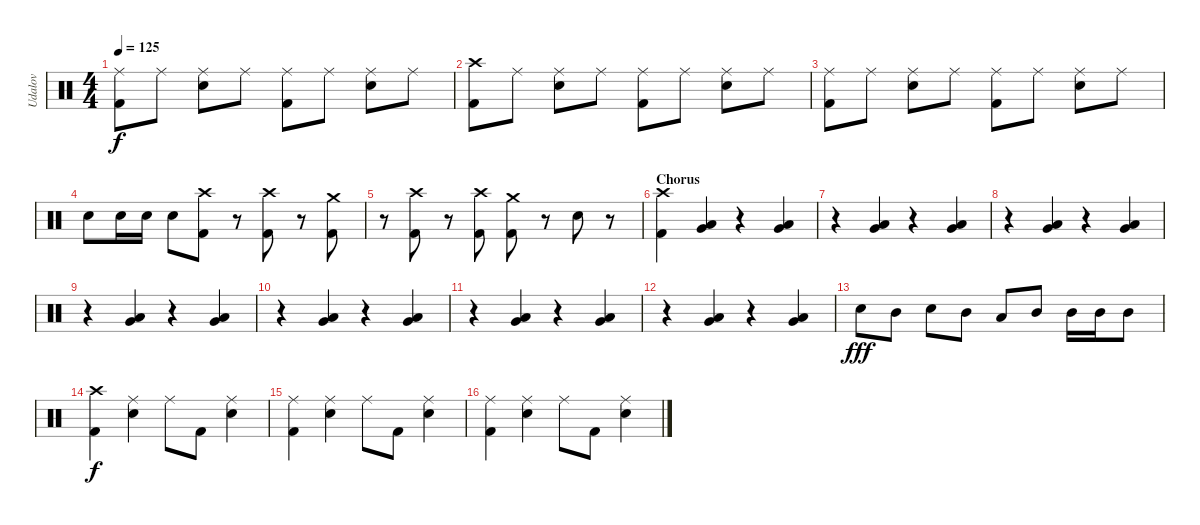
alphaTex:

\track ("Udalov" "Udalov") {instrument percussion}
\staff {score}
\articulation defaults
\ts (4 4)
\tempo 125
\clef neutral
\ks c
("Kick (hit) 2" "Ride (middle)").8{dy f} "Ride (middle)".8 ("Snare (hit) 2" "Ride (middle)").8 "Ride (middle)".8 ("Kick (hit) 2" "Ride (middle)").8 "Ride (middle)".8 ("Snare (hit) 2" "Ride (middle)").8 "Ride (middle)".8 |
("Kick (hit) 2" "Crash high (hit)").8 "Ride (middle)".8 ("Snare (hit) 2" "Ride (middle)").8 "Ride (middle)".8 ("Kick (hit) 2" "Ride (middle)").8 "Ride (middle)".8 ("Snare (hit) 2" "Ride (middle)").8 "Ride (middle)".8 |
("Kick (hit) 2" "Ride (middle)").8 "Ride (middle)".8 ("Snare (hit) 2" "Ride (middle)").8 "Ride (middle)".8 ("Kick (hit) 2" "Ride (middle)").8 "Ride (middle)".8 ("Snare (hit) 2" "Ride (middle)").8 "Ride (middle)".8 |
"Snare (hit) 2".8 "Snare (hit) 2".16 "Snare (hit) 2".16 "Snare (hit) 2".8 ("Kick (hit) 2" "Crash high (hit)").8 r.8 ("Kick (hit) 2" "Crash high (hit)").8 r.8 ("Kick (hit) 2" "Crash medium (hit)").8 |
r.8 ("Kick (hit) 2" "Crash high (hit)").8 r.8 ("Kick (hit) 2" "Crash high (hit)").8 ("Kick (hit) 2" "Crash medium (hit)").8 r.8 "Snare (hit) 2".8 r.8 |
\section ("" "Chorus")
("Kick (hit) 2" "Crash high (hit)").4 ("Very Low Tom (hit)" "Low Tom (hit)").4 r.4 ("Very Low Tom (hit)" "Low Tom (hit)").4 |
r.4 ("Very Low Tom (hit)" "Low Tom (hit)").4 r.4 ("Very Low Tom (hit)" "Low Tom (hit)").4 |
r.4 ("Very Low Tom (hit)" "Low Tom (hit)").4 r.4 ("Very Low Tom (hit)" "Low Tom (hit)").4 |
r.4 ("Very Low Tom (hit)" "Low Tom (hit)").4 r.4 ("Very Low Tom (hit)" "Low Tom (hit)").4 |
r.4 ("Very Low Tom (hit)" "Low Tom (hit)").4 r.4 ("Very Low Tom (hit)" "Low Tom (hit)").4 |
r.4 ("Very Low Tom (hit)" "Low Tom (hit)").4 r.4 ("Very Low Tom (hit)" "Low Tom (hit)").4 |
r.4 ("Very Low Tom (hit)" "Low Tom (hit)").4 r.4 ("Very Low Tom (hit)" "Low Tom (hit)").4 |
"Snare (hit) 2".8{dy fff} "Mid Tom (hit)".8 "Electric Snare (hit)".8 "Mid Tom (hit)".8 "Low Tom (hit)".8 "Mid Tom (hit)".8 "Mid Tom (hit)".16 "Mid Tom (hit)".16 "Mid Tom (hit)".8 |
("Kick (hit) 2" "Crash high (hit)").4{dy f} ("Snare (hit) 2" "Ride (middle)").4 "Ride (middle)".8 "Kick (hit) 2".8 ("Snare (hit) 2" "Ride (middle)").4 |
("Kick (hit) 2" "Ride (middle)").4 ("Snare (hit) 2" "Ride (middle)").4 "Ride (middle)".8 "Kick (hit) 2".8 ("Snare (hit) 2" "Ride (middle)").4 |
("Kick (hit) 2" "Ride (middle)").4 ("Snare (hit) 2" "Ride (middle)").4 "Ride (middle)".8 "Kick (hit) 2".8 ("Snare (hit) 2" "Ride (middle)").4
